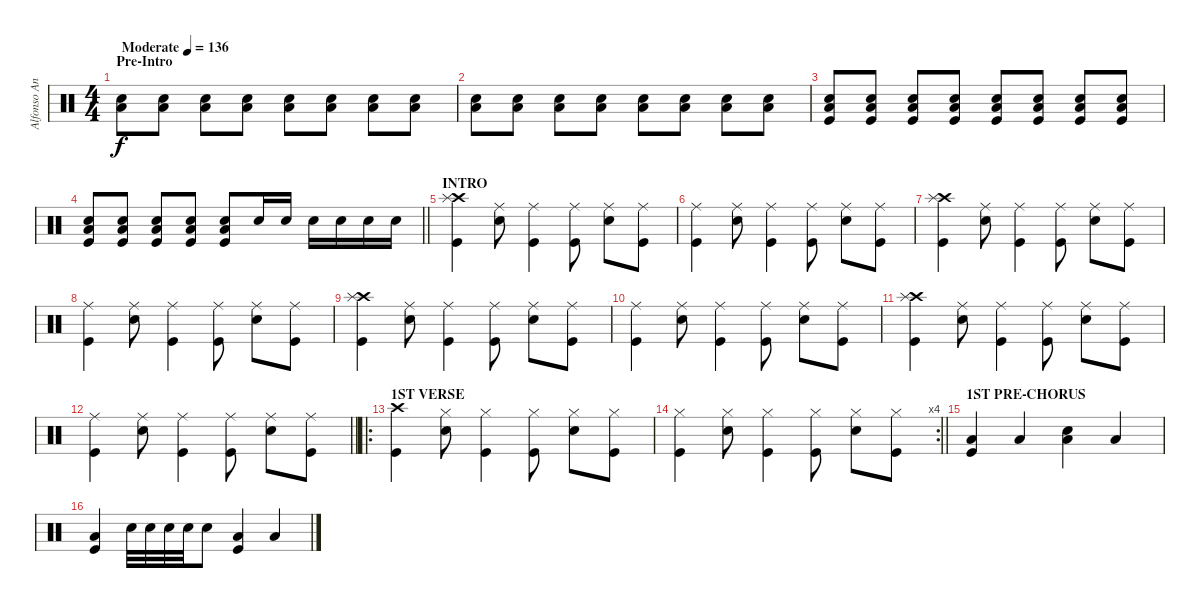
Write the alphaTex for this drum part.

\track ("Alfonso Andre" "Alfonso An") {instrument percussion}
\staff {score}
\articulation defaults
\ts (4 4)
\section ("" "Pre-Intro")
\tempo (136 "Moderate")
\clef neutral
\ks c
("Snare (hit) 2" "Low Floor Tom (hit)").8{dy f} ("Snare (hit) 2" "Low Floor Tom (hit)").8 ("Snare (hit) 2" "Low Floor Tom (hit)").8 ("Snare (hit) 2" "Low Floor Tom (hit)").8 ("Snare (hit) 2" "Low Floor Tom (hit)").8 ("Snare (hit) 2" "Low Floor Tom (hit)").8 ("Snare (hit) 2" "Low Floor Tom (hit)").8 ("Snare (hit) 2" "Low Floor Tom (hit)").8 |
("Snare (hit) 2" "Low Floor Tom (hit)").8 ("Snare (hit) 2" "Low Floor Tom (hit)").8 ("Snare (hit) 2" "Low Floor Tom (hit)").8 ("Snare (hit) 2" "Low Floor Tom (hit)").8 ("Snare (hit) 2" "Low Floor Tom (hit)").8 ("Snare (hit) 2" "Low Floor Tom (hit)").8 ("Snare (hit) 2" "Low Floor Tom (hit)").8 ("Snare (hit) 2" "Low Floor Tom (hit)").8 |
("Kick (hit)" "Snare (hit) 2" "Low Floor Tom (hit)").8 ("Kick (hit)" "Snare (hit) 2" "Low Floor Tom (hit)").8 ("Kick (hit)" "Snare (hit) 2" "Low Floor Tom (hit)").8 ("Kick (hit)" "Snare (hit) 2" "Low Floor Tom (hit)").8 ("Kick (hit)" "Snare (hit) 2" "Low Floor Tom (hit)").8 ("Kick (hit)" "Snare (hit) 2" "Low Floor Tom (hit)").8 ("Kick (hit)" "Snare (hit) 2" "Low Floor Tom (hit)").8 ("Kick (hit)" "Snare (hit) 2" "Low Floor Tom (hit)").8 |
\barLineRight lightlight
("Kick (hit)" "Snare (hit) 2" "Low Floor Tom (hit)").8 ("Kick (hit)" "Snare (hit) 2" "Low Floor Tom (hit)").8 ("Kick (hit)" "Snare (hit) 2" "Low Floor Tom (hit)").8 ("Kick (hit)" "Snare (hit) 2" "Low Floor Tom (hit)").8 ("Kick (hit)" "Snare (hit) 2" "Low Floor Tom (hit)").8 "Snare (hit) 2".16 "Snare (hit) 2".16 "Snare (hit) 2".16 "Snare (hit) 2".16 "Snare (hit) 2".16 "Snare (hit) 2".16 |
\section ("" "INTRO")
("Kick (hit)" "Crash high (hit)" "Splash (hit)").4 ("Snare (hit) 2" "Ride (middle)").8 ("Kick (hit)" "Ride (middle)").4 ("Kick (hit)" "Ride (middle)").8 ("Snare (hit) 2" "Ride (middle)").8 ("Kick (hit)" "Ride (middle)").8 |
("Kick (hit)" "Ride (middle)").4 ("Snare (hit) 2" "Ride (middle)").8 ("Kick (hit)" "Ride (middle)").4 ("Kick (hit)" "Ride (middle)").8 ("Snare (hit) 2" "Ride (middle)").8 ("Kick (hit)" "Ride (middle)").8 |
("Kick (hit)" "Crash high (hit)" "Splash (hit)").4 ("Snare (hit) 2" "Ride (middle)").8 ("Kick (hit)" "Ride (middle)").4 ("Kick (hit)" "Ride (middle)").8 ("Snare (hit) 2" "Ride (middle)").8 ("Kick (hit)" "Ride (middle)").8 |
("Kick (hit)" "Ride (middle)").4 ("Snare (hit) 2" "Ride (middle)").8 ("Kick (hit)" "Ride (middle)").4 ("Kick (hit)" "Ride (middle)").8 ("Snare (hit) 2" "Ride (middle)").8 ("Kick (hit)" "Ride (middle)").8 |
("Kick (hit)" "Crash high (hit)" "Splash (hit)").4 ("Snare (hit) 2" "Ride (middle)").8 ("Kick (hit)" "Ride (middle)").4 ("Kick (hit)" "Ride (middle)").8 ("Snare (hit) 2" "Ride (middle)").8 ("Kick (hit)" "Ride (middle)").8 |
("Kick (hit)" "Ride (middle)").4 ("Snare (hit) 2" "Ride (middle)").8 ("Kick (hit)" "Ride (middle)").4 ("Kick (hit)" "Ride (middle)").8 ("Snare (hit) 2" "Ride (middle)").8 ("Kick (hit)" "Ride (middle)").8 |
("Kick (hit)" "Crash high (hit)" "Splash (hit)").4 ("Snare (hit) 2" "Ride (middle)").8 ("Kick (hit)" "Ride (middle)").4 ("Kick (hit)" "Ride (middle)").8 ("Snare (hit) 2" "Ride (middle)").8 ("Kick (hit)" "Ride (middle)").8 |
\barLineRight lightlight
("Kick (hit)" "Ride (middle)").4 ("Snare (hit) 2" "Ride (middle)").8 ("Kick (hit)" "Ride (middle)").4 ("Kick (hit)" "Ride (middle)").8 ("Snare (hit) 2" "Ride (middle)").8 ("Kick (hit)" "Ride (middle)").8 |
\ro
\section ("" "1ST VERSE")
("Kick (hit)" "Crash high (hit)").4 ("Snare (hit) 2" "Hi-Hat (closed)").8 ("Kick (hit)" "Hi-Hat (closed)").4 ("Kick (hit)" "Hi-Hat (closed)").8 ("Snare (hit) 2" "Hi-Hat (closed)").8 ("Kick (hit)" "Hi-Hat (closed)").8 |
\rc 4
\barLineRight lightlight
("Kick (hit)" "Hi-Hat (closed)").4 ("Snare (hit) 2" "Hi-Hat (closed)").8 ("Kick (hit)" "Hi-Hat (closed)").4 ("Kick (hit)" "Hi-Hat (closed)").8 ("Snare (hit) 2" "Hi-Hat (closed)").8 ("Kick (hit)" "Hi-Hat (closed)").8 |
\section ("" "1ST PRE-CHORUS")
("Kick (hit)" "Low Floor Tom (hit)").4 "Low Floor Tom (hit)".4 ("Snare (hit) 2" "Low Floor Tom (hit)").4 "Low Floor Tom (hit)".4 |
("Kick (hit)" "Low Floor Tom (hit)").4 "Snare (hit) 2".32 "Snare (hit) 2".32 "Snare (hit) 2".32 "Snare (hit) 2".32 "Snare (hit) 2".8 ("Kick (hit)" "Low Floor Tom (hit)").4 "Low Floor Tom (hit)".4
